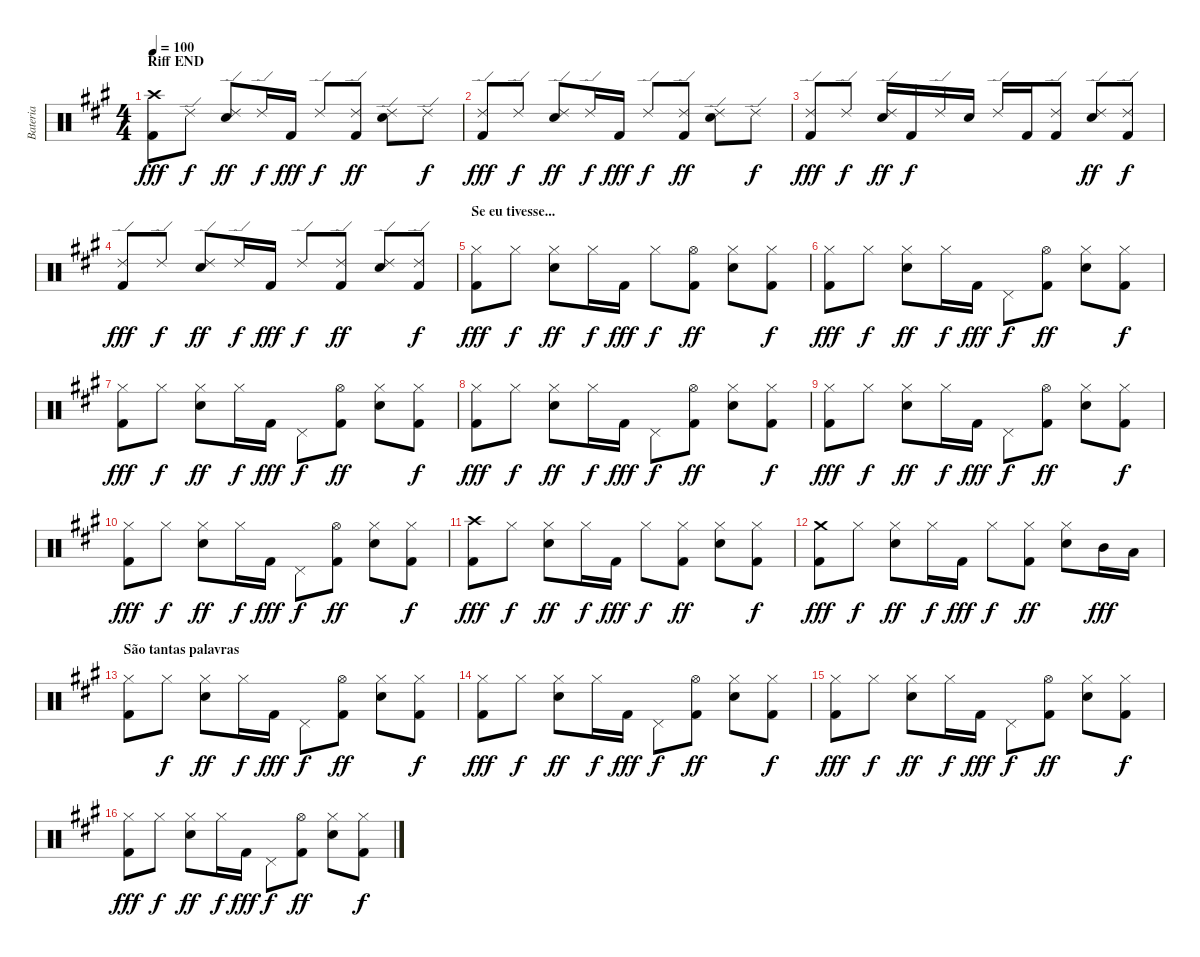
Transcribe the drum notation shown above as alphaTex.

\track ("Bateria" "Bateria") {instrument percussion}
\staff {score}
\articulation defaults
\ts (4 4)
\section ("" "Riff END")
\tempo 100
\clef neutral
\ks f#minor
("Crash high (hit)" "Kick (hit) 2").8{dy fff} "Ride (edge) 2".8{dy f} ("Ride (edge) 2" "Electric Snare (hit)").8{dy ff} "Ride (edge) 2".16{dy f} "Kick (hit) 2".16{dy fff} "Ride (edge) 2".8{dy f} ("Ride (edge) 2" "Kick (hit) 2").8{dy ff} ("Ride (edge) 2" "Electric Snare (hit)").8 "Ride (edge) 2".8{dy f} |
("Ride (edge) 2" "Kick (hit) 2").8{dy fff} "Ride (edge) 2".8{dy f} ("Ride (edge) 2" "Electric Snare (hit)").8{dy ff} "Ride (edge) 2".16{dy f} "Kick (hit) 2".16{dy fff} "Ride (edge) 2".8{dy f} ("Ride (edge) 2" "Kick (hit) 2").8{dy ff} ("Ride (edge) 2" "Electric Snare (hit)").8 "Ride (edge) 2".8{dy f} |
("Ride (edge) 2" "Kick (hit) 2").8{dy fff} "Ride (edge) 2".8{dy f} ("Ride (edge) 2" "Electric Snare (hit)").16{dy ff} "Kick (hit) 2".16{dy f} "Ride (edge) 2".16 "Electric Snare (hit)".16 "Ride (edge) 2".16 "Kick (hit) 2".16 ("Ride (edge) 2" "Kick (hit) 2").8 ("Ride (edge) 2" "Electric Snare (hit)").8{dy ff} ("Ride (edge) 2" "Kick (hit) 2").8{dy f} |
("Ride (edge) 2" "Kick (hit) 2").8{dy fff} "Ride (edge) 2".8{dy f} ("Ride (edge) 2" "Electric Snare (hit)").8{dy ff} "Ride (edge) 2".16{dy f} "Kick (hit) 2".16{dy fff} "Ride (edge) 2".8{dy f} ("Ride (edge) 2" "Kick (hit) 2").8{dy ff} ("Ride (edge) 2" "Electric Snare (hit)").8 ("Ride (edge) 2" "Kick (hit) 2").8{dy f} |
\section ("" "Se eu tivesse...")
("Hi-Hat (closed)" "Kick (hit) 2").8{dy fff} "Hi-Hat (closed)".8{dy f} ("Hi-Hat (closed)" "Electric Snare (hit)").8{dy ff} "Hi-Hat (closed)".16{dy f} "Kick (hit) 2".16{dy fff} "Hi-Hat (closed)".8{dy f} ("Hi-Hat (open)" "Kick (hit) 2").8{dy ff} ("Hi-Hat (closed)" "Electric Snare (hit)").8 ("Hi-Hat (closed)" "Kick (hit) 2").8{dy f} |
("Hi-Hat (closed)" "Kick (hit) 2").8{dy fff} "Hi-Hat (closed)".8{dy f} ("Hi-Hat (closed)" "Electric Snare (hit)").8{dy ff} "Hi-Hat (closed)".16{dy f} "Kick (hit) 2".16{dy fff} "Pedal Hi-Hat (hit)".8{dy f} ("Hi-Hat (open)" "Kick (hit) 2").8{dy ff} ("Hi-Hat (closed)" "Electric Snare (hit)").8 ("Hi-Hat (closed)" "Kick (hit) 2").8{dy f} |
("Hi-Hat (closed)" "Kick (hit) 2").8{dy fff} "Hi-Hat (closed)".8{dy f} ("Hi-Hat (closed)" "Electric Snare (hit)").8{dy ff} "Hi-Hat (closed)".16{dy f} "Kick (hit) 2".16{dy fff} "Pedal Hi-Hat (hit)".8{dy f} ("Hi-Hat (open)" "Kick (hit) 2").8{dy ff} ("Hi-Hat (closed)" "Electric Snare (hit)").8 ("Hi-Hat (closed)" "Kick (hit) 2").8{dy f} |
("Hi-Hat (closed)" "Kick (hit) 2").8{dy fff} "Hi-Hat (closed)".8{dy f} ("Hi-Hat (closed)" "Electric Snare (hit)").8{dy ff} "Hi-Hat (closed)".16{dy f} "Kick (hit) 2".16{dy fff} "Pedal Hi-Hat (hit)".8{dy f} ("Hi-Hat (open)" "Kick (hit) 2").8{dy ff} ("Hi-Hat (closed)" "Electric Snare (hit)").8 ("Hi-Hat (closed)" "Kick (hit) 2").8{dy f} |
("Hi-Hat (closed)" "Kick (hit) 2").8{dy fff} "Hi-Hat (closed)".8{dy f} ("Hi-Hat (closed)" "Electric Snare (hit)").8{dy ff} "Hi-Hat (closed)".16{dy f} "Kick (hit) 2".16{dy fff} "Pedal Hi-Hat (hit)".8{dy f} ("Hi-Hat (open)" "Kick (hit) 2").8{dy ff} ("Hi-Hat (closed)" "Electric Snare (hit)").8 ("Hi-Hat (closed)" "Kick (hit) 2").8{dy f} |
("Hi-Hat (closed)" "Kick (hit) 2").8{dy fff} "Hi-Hat (closed)".8{dy f} ("Hi-Hat (closed)" "Electric Snare (hit)").8{dy ff} "Hi-Hat (closed)".16{dy f} "Kick (hit) 2".16{dy fff} "Pedal Hi-Hat (hit)".8{dy f} ("Hi-Hat (open)" "Kick (hit) 2").8{dy ff} ("Hi-Hat (closed)" "Electric Snare (hit)").8 ("Hi-Hat (closed)" "Kick (hit) 2").8{dy f} |
("Crash high (hit)" "Kick (hit) 2").8{dy fff} "Hi-Hat (closed)".8{dy f} ("Hi-Hat (closed)" "Electric Snare (hit)").8{dy ff} "Hi-Hat (closed)".16{dy f} "Kick (hit) 2".16{dy fff} "Hi-Hat (closed)".8{dy f} ("Hi-Hat (closed)" "Kick (hit) 2").8{dy ff} ("Hi-Hat (closed)" "Electric Snare (hit)").8 ("Hi-Hat (closed)" "Kick (hit) 2").8{dy f} |
("Crash medium (hit)" "Kick (hit) 2").8{dy fff} "Hi-Hat (closed)".8{dy f} ("Hi-Hat (closed)" "Electric Snare (hit)").8{dy ff} "Hi-Hat (closed)".16{dy f} "Kick (hit) 2".16{dy fff} "Hi-Hat (closed)".8{dy f} ("Hi-Hat (closed)" "Kick (hit) 2").8{dy ff} ("Hi-Hat (closed)" "Electric Snare (hit)").8 "Mid Tom (hit)".16{dy fff} "Low Tom (hit)".16 |
\section ("" "São tantas palavras")
("Hi-Hat (closed)" "Kick (hit) 2").8 "Hi-Hat (closed)".8{dy f} ("Hi-Hat (closed)" "Electric Snare (hit)").8{dy ff} "Hi-Hat (closed)".16{dy f} "Kick (hit) 2".16{dy fff} "Pedal Hi-Hat (hit)".8{dy f} ("Hi-Hat (open)" "Kick (hit) 2").8{dy ff} ("Hi-Hat (closed)" "Electric Snare (hit)").8 ("Hi-Hat (closed)" "Kick (hit) 2").8{dy f} |
("Hi-Hat (closed)" "Kick (hit) 2").8{dy fff} "Hi-Hat (closed)".8{dy f} ("Hi-Hat (closed)" "Electric Snare (hit)").8{dy ff} "Hi-Hat (closed)".16{dy f} "Kick (hit) 2".16{dy fff} "Pedal Hi-Hat (hit)".8{dy f} ("Hi-Hat (open)" "Kick (hit) 2").8{dy ff} ("Hi-Hat (closed)" "Electric Snare (hit)").8 ("Hi-Hat (closed)" "Kick (hit) 2").8{dy f} |
("Hi-Hat (closed)" "Kick (hit) 2").8{dy fff} "Hi-Hat (closed)".8{dy f} ("Hi-Hat (closed)" "Electric Snare (hit)").8{dy ff} "Hi-Hat (closed)".16{dy f} "Kick (hit) 2".16{dy fff} "Pedal Hi-Hat (hit)".8{dy f} ("Hi-Hat (open)" "Kick (hit) 2").8{dy ff} ("Hi-Hat (closed)" "Electric Snare (hit)").8 ("Hi-Hat (closed)" "Kick (hit) 2").8{dy f} |
("Hi-Hat (closed)" "Kick (hit) 2").8{dy fff} "Hi-Hat (closed)".8{dy f} ("Hi-Hat (closed)" "Electric Snare (hit)").8{dy ff} "Hi-Hat (closed)".16{dy f} "Kick (hit) 2".16{dy fff} "Pedal Hi-Hat (hit)".8{dy f} ("Hi-Hat (open)" "Kick (hit) 2").8{dy ff} ("Hi-Hat (closed)" "Electric Snare (hit)").8 ("Hi-Hat (closed)" "Kick (hit) 2").8{dy f}
